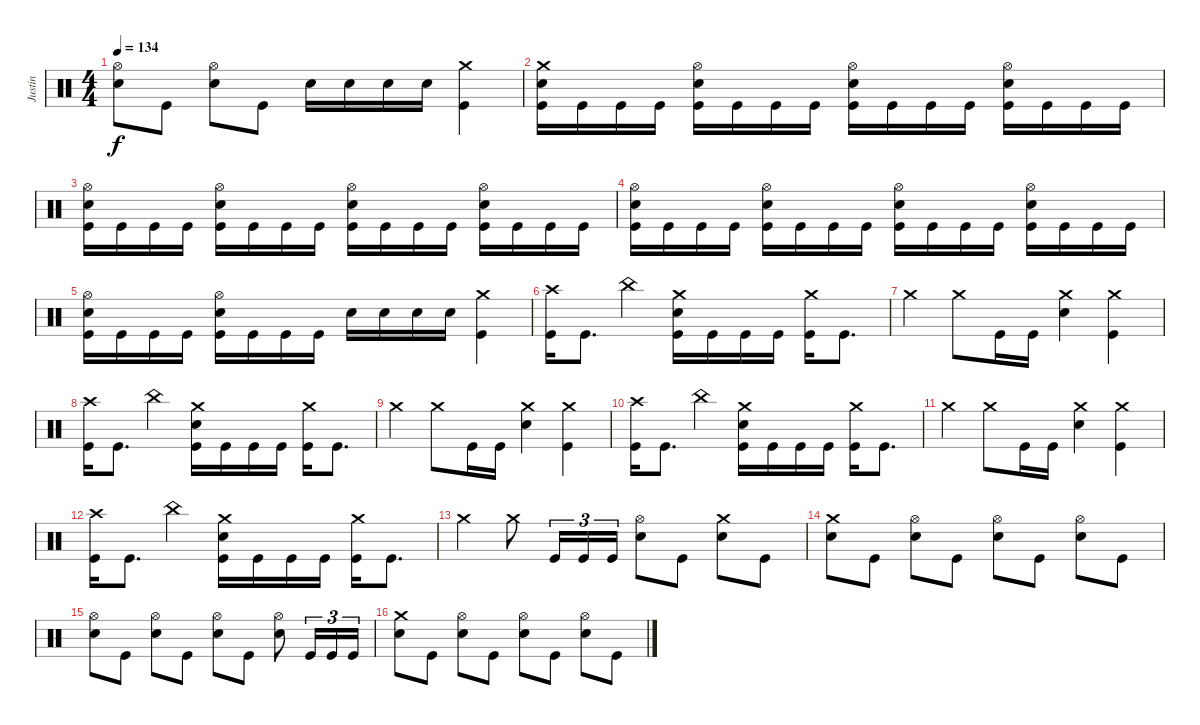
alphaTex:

\track ("Justin" "Justin") {instrument percussion}
\staff {score}
\articulation defaults
\ts (4 4)
\tempo 134
\clef neutral
\ks c
("Hi-Hat (open)" "Electric Snare (hit)").8{dy f} "Kick (hit)".8 ("Hi-Hat (open)" "Electric Snare (hit)").8 "Kick (hit)".8 "Electric Snare (hit)".16 "Electric Snare (hit)".16 "Electric Snare (hit)".16 "Electric Snare (hit)".16 ("Crash medium (hit)" "Kick (hit)").4 |
("Crash medium (hit)" "Electric Snare (hit)" "Kick (hit)").16 "Kick (hit)".16 "Kick (hit)".16 "Kick (hit)".16 ("Hi-Hat (open)" "Electric Snare (hit)" "Kick (hit)").16 "Kick (hit)".16 "Kick (hit)".16 "Kick (hit)".16 ("Hi-Hat (open)" "Electric Snare (hit)" "Kick (hit)").16 "Kick (hit)".16 "Kick (hit)".16 "Kick (hit)".16 ("Hi-Hat (open)" "Electric Snare (hit)" "Kick (hit)").16 "Kick (hit)".16 "Kick (hit)".16 "Kick (hit)".16 |
("Hi-Hat (open)" "Electric Snare (hit)" "Kick (hit)").16 "Kick (hit)".16 "Kick (hit)".16 "Kick (hit)".16 ("Hi-Hat (open)" "Electric Snare (hit)" "Kick (hit)").16 "Kick (hit)".16 "Kick (hit)".16 "Kick (hit)".16 ("Hi-Hat (open)" "Electric Snare (hit)" "Kick (hit)").16 "Kick (hit)".16 "Kick (hit)".16 "Kick (hit)".16 ("Hi-Hat (open)" "Electric Snare (hit)" "Kick (hit)").16 "Kick (hit)".16 "Kick (hit)".16 "Kick (hit)".16 |
("Hi-Hat (open)" "Electric Snare (hit)" "Kick (hit)").16 "Kick (hit)".16 "Kick (hit)".16 "Kick (hit)".16 ("Hi-Hat (open)" "Electric Snare (hit)" "Kick (hit)").16 "Kick (hit)".16 "Kick (hit)".16 "Kick (hit)".16 ("Hi-Hat (open)" "Electric Snare (hit)" "Kick (hit)").16 "Kick (hit)".16 "Kick (hit)".16 "Kick (hit)".16 ("Hi-Hat (open)" "Electric Snare (hit)" "Kick (hit)").16 "Kick (hit)".16 "Kick (hit)".16 "Kick (hit)".16 |
("Hi-Hat (open)" "Electric Snare (hit)" "Kick (hit)").16 "Kick (hit)".16 "Kick (hit)".16 "Kick (hit)".16 ("Hi-Hat (open)" "Electric Snare (hit)" "Kick (hit)").16 "Kick (hit)".16 "Kick (hit)".16 "Kick (hit)".16 "Electric Snare (hit)".16 "Electric Snare (hit)".16 "Electric Snare (hit)".16 "Electric Snare (hit)".16 ("Crash medium (hit)" "Kick (hit)").4 |
("Crash high (hit)" "Kick (hit)").16 "Kick (hit)".8{d} "China (hit)".4 ("Crash medium (hit)" "Electric Snare (hit)" "Kick (hit)").16 "Kick (hit)".16 "Kick (hit)".16 "Kick (hit)".16 ("Crash medium (hit)" "Kick (hit)").16 "Kick (hit)".8{d} |
"Crash medium (hit)".4 "Crash medium (hit)".8 "Kick (hit)".16 "Kick (hit)".16 ("Crash medium (hit)" "Electric Snare (hit)").4 ("Crash medium (hit)" "Kick (hit)").4 |
("Crash high (hit)" "Kick (hit)").16 "Kick (hit)".8{d} "China (hit)".4 ("Crash medium (hit)" "Electric Snare (hit)" "Kick (hit)").16 "Kick (hit)".16 "Kick (hit)".16 "Kick (hit)".16 ("Crash medium (hit)" "Kick (hit)").16 "Kick (hit)".8{d} |
"Crash medium (hit)".4 "Crash medium (hit)".8 "Kick (hit)".16 "Kick (hit)".16 ("Crash medium (hit)" "Electric Snare (hit)").4 ("Crash medium (hit)" "Kick (hit)").4 |
("Crash high (hit)" "Kick (hit)").16 "Kick (hit)".8{d} "China (hit)".4 ("Crash medium (hit)" "Electric Snare (hit)" "Kick (hit)").16 "Kick (hit)".16 "Kick (hit)".16 "Kick (hit)".16 ("Crash medium (hit)" "Kick (hit)").16 "Kick (hit)".8{d} |
"Crash medium (hit)".4 "Crash medium (hit)".8 "Kick (hit)".16 "Kick (hit)".16 ("Crash medium (hit)" "Electric Snare (hit)").4 ("Crash medium (hit)" "Kick (hit)").4 |
("Crash high (hit)" "Kick (hit)").16 "Kick (hit)".8{d} "China (hit)".4 ("Crash medium (hit)" "Electric Snare (hit)" "Kick (hit)").16 "Kick (hit)".16 "Kick (hit)".16 "Kick (hit)".16 ("Crash medium (hit)" "Kick (hit)").16 "Kick (hit)".8{d} |
"Crash medium (hit)".4 "Crash medium (hit)".8 "Kick (hit)".16{tu (3 2)} "Kick (hit)".16{tu (3 2)} "Kick (hit)".16{tu (3 2)} ("Hi-Hat (open)" "Electric Snare (hit)").8 "Kick (hit)".8 ("Crash medium (hit)" "Electric Snare (hit)").8 "Kick (hit)".8 |
("Crash medium (hit)" "Electric Snare (hit)").8 "Kick (hit)".8 ("Hi-Hat (open)" "Electric Snare (hit)").8 "Kick (hit)".8 ("Hi-Hat (open)" "Electric Snare (hit)").8 "Kick (hit)".8 ("Hi-Hat (open)" "Electric Snare (hit)").8 "Kick (hit)".8 |
("Hi-Hat (open)" "Electric Snare (hit)").8 "Kick (hit)".8 ("Hi-Hat (open)" "Electric Snare (hit)").8 "Kick (hit)".8 ("Hi-Hat (open)" "Electric Snare (hit)").8 "Kick (hit)".8 ("Hi-Hat (open)" "Electric Snare (hit)").8 "Kick (hit)".16{tu (3 2)} "Kick (hit)".16{tu (3 2)} "Kick (hit)".16{tu (3 2)} |
("Crash medium (hit)" "Electric Snare (hit)").8 "Kick (hit)".8 ("Hi-Hat (open)" "Electric Snare (hit)").8 "Kick (hit)".8 ("Hi-Hat (open)" "Electric Snare (hit)").8 "Kick (hit)".8 ("Hi-Hat (open)" "Electric Snare (hit)").8 "Kick (hit)".8
